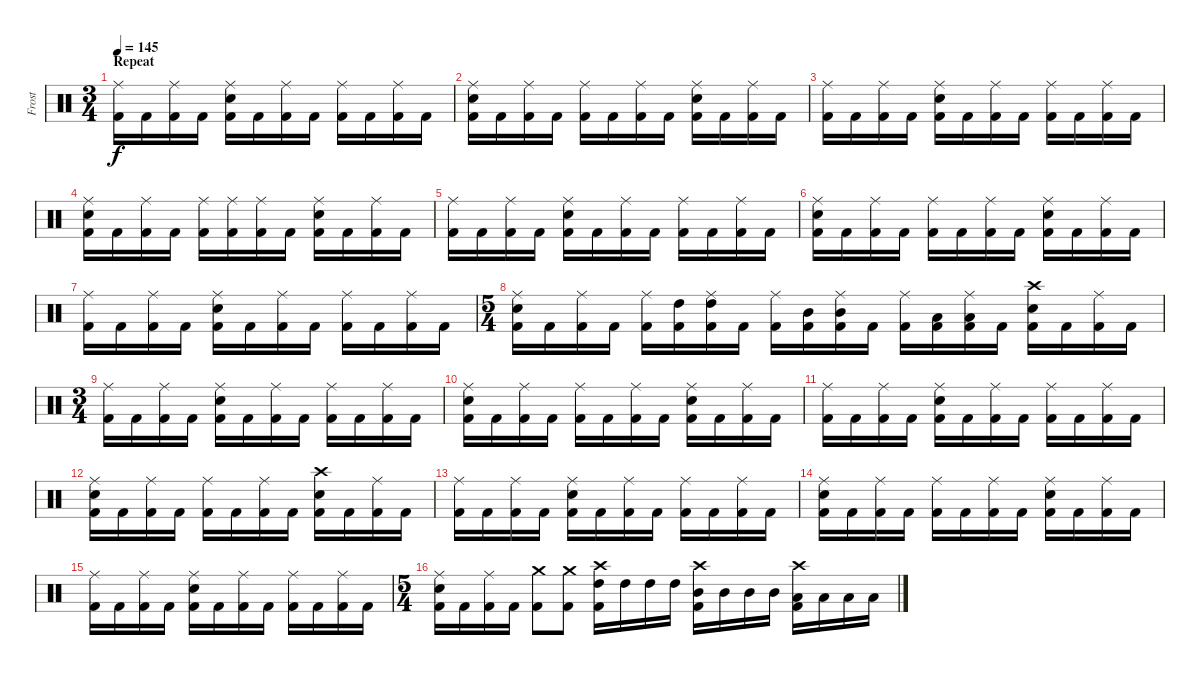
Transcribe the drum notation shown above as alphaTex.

\track ("Frost" "Frost") {instrument percussion}
\staff {score}
\articulation defaults
\ts (3 4)
\section ("" "Repeat")
\tempo 145
\clef neutral
\ks c
("Ride (middle)" "Kick (hit) 2").16{dy f} "Kick (hit) 2".16 ("Ride (middle)" "Kick (hit) 2").16 "Kick (hit) 2".16 ("Ride (middle)" "Electric Snare (hit)" "Kick (hit) 2").16 "Kick (hit) 2".16 ("Ride (middle)" "Kick (hit) 2").16 "Kick (hit) 2".16 ("Ride (middle)" "Kick (hit) 2").16 "Kick (hit) 2".16 ("Ride (middle)" "Kick (hit) 2").16 "Kick (hit) 2".16 |
("Ride (middle)" "Electric Snare (hit)" "Kick (hit) 2").16 "Kick (hit) 2".16 ("Ride (middle)" "Kick (hit) 2").16 "Kick (hit) 2".16 ("Ride (middle)" "Kick (hit) 2").16 "Kick (hit) 2".16 ("Ride (middle)" "Kick (hit) 2").16 "Kick (hit) 2".16 ("Ride (middle)" "Electric Snare (hit)" "Kick (hit) 2").16 "Kick (hit) 2".16 ("Ride (middle)" "Kick (hit) 2").16 "Kick (hit) 2".16 |
("Ride (middle)" "Kick (hit) 2").16 "Kick (hit) 2".16 ("Ride (middle)" "Kick (hit) 2").16 "Kick (hit) 2".16 ("Ride (middle)" "Electric Snare (hit)" "Kick (hit) 2").16 "Kick (hit) 2".16 ("Ride (middle)" "Kick (hit) 2").16 "Kick (hit) 2".16 ("Ride (middle)" "Kick (hit) 2").16 "Kick (hit) 2".16 ("Ride (middle)" "Kick (hit) 2").16 "Kick (hit) 2".16 |
("Ride (middle)" "Electric Snare (hit)" "Kick (hit) 2").16 "Kick (hit) 2".16 ("Ride (middle)" "Kick (hit) 2").16 "Kick (hit) 2".16 ("Ride (middle)" "Kick (hit) 2").16 ("Ride (middle)" "Kick (hit) 2").16 ("Ride (middle)" "Kick (hit) 2").16 "Kick (hit) 2".16 ("Ride (middle)" "Electric Snare (hit)" "Kick (hit) 2").16 "Kick (hit) 2".16 ("Ride (middle)" "Kick (hit) 2").16 "Kick (hit) 2".16 |
("Ride (middle)" "Kick (hit) 2").16 "Kick (hit) 2".16 ("Ride (middle)" "Kick (hit) 2").16 "Kick (hit) 2".16 ("Ride (middle)" "Electric Snare (hit)" "Kick (hit) 2").16 "Kick (hit) 2".16 ("Ride (middle)" "Kick (hit) 2").16 "Kick (hit) 2".16 ("Ride (middle)" "Kick (hit) 2").16 "Kick (hit) 2".16 ("Ride (middle)" "Kick (hit) 2").16 "Kick (hit) 2".16 |
("Ride (middle)" "Electric Snare (hit)" "Kick (hit) 2").16 "Kick (hit) 2".16 ("Ride (middle)" "Kick (hit) 2").16 "Kick (hit) 2".16 ("Ride (middle)" "Kick (hit) 2").16 "Kick (hit) 2".16 ("Ride (middle)" "Kick (hit) 2").16 "Kick (hit) 2".16 ("Ride (middle)" "Electric Snare (hit)" "Kick (hit) 2").16 "Kick (hit) 2".16 ("Ride (middle)" "Kick (hit) 2").16 "Kick (hit) 2".16 |
("Ride (middle)" "Kick (hit) 2").16 "Kick (hit) 2".16 ("Ride (middle)" "Kick (hit) 2").16 "Kick (hit) 2".16 ("Ride (middle)" "Electric Snare (hit)" "Kick (hit) 2").16 "Kick (hit) 2".16 ("Ride (middle)" "Kick (hit) 2").16 "Kick (hit) 2".16 ("Ride (middle)" "Kick (hit) 2").16 "Kick (hit) 2".16 ("Ride (middle)" "Kick (hit) 2").16 "Kick (hit) 2".16 |
\ts (5 4)
("Ride (middle)" "Electric Snare (hit)" "Kick (hit) 2").16 "Kick (hit) 2".16 ("Ride (middle)" "Kick (hit) 2").16 "Kick (hit) 2".16 ("Ride (middle)" "Kick (hit) 2").16 ("High Tom (hit)" "Kick (hit) 2").16 ("Ride (middle)" "High Tom (hit)" "Kick (hit) 2").16 "Kick (hit) 2".16 ("Ride (middle)" "Kick (hit) 2").16 ("Mid Tom (hit)" "Kick (hit) 2").16 ("Ride (middle)" "Mid Tom (hit)" "Kick (hit) 2").16 "Kick (hit) 2".16 ("Ride (middle)" "Kick (hit) 2").16 ("Low Tom (hit)" "Kick (hit) 2").16 ("Ride (middle)" "Low Tom (hit)" "Kick (hit) 2").16 "Kick (hit) 2".16 ("Crash high (hit)" "Electric Snare (hit)" "Kick (hit) 2").16 "Kick (hit) 2".16 ("Ride (middle)" "Kick (hit) 2").16 "Kick (hit) 2".16 |
\ts (3 4)
("Ride (middle)" "Kick (hit) 2").16 "Kick (hit) 2".16 ("Ride (middle)" "Kick (hit) 2").16 "Kick (hit) 2".16 ("Ride (middle)" "Electric Snare (hit)" "Kick (hit) 2").16 "Kick (hit) 2".16 ("Ride (middle)" "Kick (hit) 2").16 "Kick (hit) 2".16 ("Ride (middle)" "Kick (hit) 2").16 "Kick (hit) 2".16 ("Ride (middle)" "Kick (hit) 2").16 "Kick (hit) 2".16 |
("Ride (middle)" "Electric Snare (hit)" "Kick (hit) 2").16 "Kick (hit) 2".16 ("Ride (middle)" "Kick (hit) 2").16 "Kick (hit) 2".16 ("Ride (middle)" "Kick (hit) 2").16 "Kick (hit) 2".16 ("Ride (middle)" "Kick (hit) 2").16 "Kick (hit) 2".16 ("Ride (middle)" "Electric Snare (hit)" "Kick (hit) 2").16 "Kick (hit) 2".16 ("Ride (middle)" "Kick (hit) 2").16 "Kick (hit) 2".16 |
("Ride (middle)" "Kick (hit) 2").16 "Kick (hit) 2".16 ("Ride (middle)" "Kick (hit) 2").16 "Kick (hit) 2".16 ("Ride (middle)" "Electric Snare (hit)" "Kick (hit) 2").16 "Kick (hit) 2".16 ("Ride (middle)" "Kick (hit) 2").16 "Kick (hit) 2".16 ("Ride (middle)" "Kick (hit) 2").16 "Kick (hit) 2".16 ("Ride (middle)" "Kick (hit) 2").16 "Kick (hit) 2".16 |
("Ride (middle)" "Electric Snare (hit)" "Kick (hit) 2").16 "Kick (hit) 2".16 ("Ride (middle)" "Kick (hit) 2").16 "Kick (hit) 2".16 ("Ride (middle)" "Kick (hit) 2").16 "Kick (hit) 2".16 ("Ride (middle)" "Kick (hit) 2").16 "Kick (hit) 2".16 ("Crash high (hit)" "Electric Snare (hit)" "Kick (hit) 2").16 "Kick (hit) 2".16 ("Ride (middle)" "Kick (hit) 2").16 "Kick (hit) 2".16 |
("Ride (middle)" "Kick (hit) 2").16 "Kick (hit) 2".16 ("Ride (middle)" "Kick (hit) 2").16 "Kick (hit) 2".16 ("Ride (middle)" "Electric Snare (hit)" "Kick (hit) 2").16 "Kick (hit) 2".16 ("Ride (middle)" "Kick (hit) 2").16 "Kick (hit) 2".16 ("Ride (middle)" "Kick (hit) 2").16 "Kick (hit) 2".16 ("Ride (middle)" "Kick (hit) 2").16 "Kick (hit) 2".16 |
("Ride (middle)" "Electric Snare (hit)" "Kick (hit) 2").16 "Kick (hit) 2".16 ("Ride (middle)" "Kick (hit) 2").16 "Kick (hit) 2".16 ("Ride (middle)" "Kick (hit) 2").16 "Kick (hit) 2".16 ("Ride (middle)" "Kick (hit) 2").16 "Kick (hit) 2".16 ("Ride (middle)" "Electric Snare (hit)" "Kick (hit) 2").16 "Kick (hit) 2".16 ("Ride (middle)" "Kick (hit) 2").16 "Kick (hit) 2".16 |
("Ride (middle)" "Kick (hit) 2").16 "Kick (hit) 2".16 ("Ride (middle)" "Kick (hit) 2").16 "Kick (hit) 2".16 ("Ride (middle)" "Electric Snare (hit)" "Kick (hit) 2").16 "Kick (hit) 2".16 ("Ride (middle)" "Kick (hit) 2").16 "Kick (hit) 2".16 ("Ride (middle)" "Kick (hit) 2").16 "Kick (hit) 2".16 ("Ride (middle)" "Kick (hit) 2").16 "Kick (hit) 2".16 |
\ts (5 4)
("Ride (middle)" "Electric Snare (hit)" "Kick (hit) 2").16 "Kick (hit) 2".16 ("Ride (middle)" "Kick (hit) 2").16 "Kick (hit) 2".16 ("Crash medium (hit)" "Kick (hit) 2").8 ("Crash medium (hit)" "Kick (hit) 2").8 ("Crash high (hit)" "High Tom (hit)" "Kick (hit) 2").16 "High Tom (hit)".16 "High Tom (hit)".16 "High Tom (hit)".16 ("Crash high (hit)" "Mid Tom (hit)" "Kick (hit) 2").16 "Mid Tom (hit)".16 "Mid Tom (hit)".16 "Mid Tom (hit)".16 ("Crash high (hit)" "Low Tom (hit)" "Kick (hit) 2").16 "Low Tom (hit)".16 "Low Tom (hit)".16 "Low Tom (hit)".16
